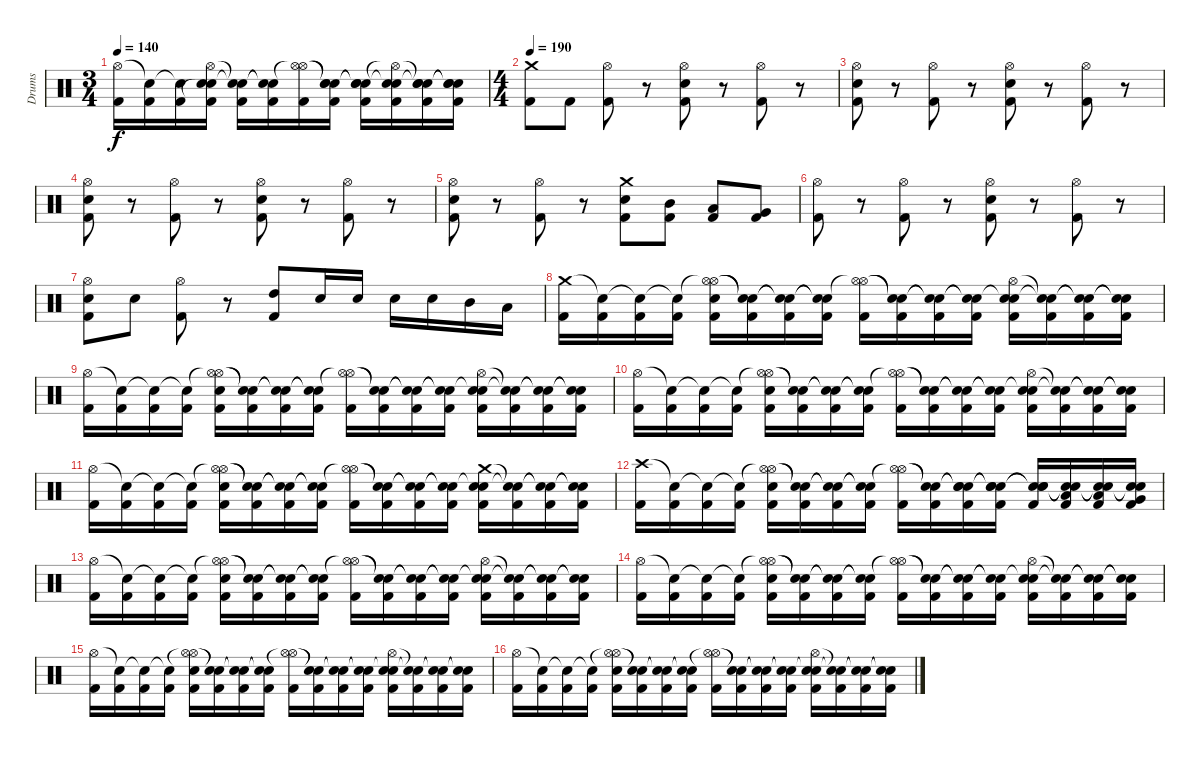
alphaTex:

\track ("Drums" "Drums") {instrument percussion}
\staff {score}
\articulation defaults
\ts (3 4)
\tempo 140
\clef neutral
\ks c
("Hi-Hat (open)" "Kick (hit) 2").16{dy f} ("Snare (hit)"{t} "Kick (hit) 2").16 ("Snare (hit)"{t} "Kick (hit) 2").16 ("Hi-Hat (open)" "Snare (hit)"{t} "Electric Snare (hit)" "Kick (hit) 2").16 ("Snare (hit)"{t} "Snare (hit)"{t} "Kick (hit) 2").16 ("Snare (hit)"{t} "Snare (hit)"{t} "Kick (hit) 2").16 ("Hi-Hat (open)"{t} "Hi-Hat (open)" "Kick (hit) 2").16 ("Snare (hit)"{t} "Snare (hit)"{t} "Electric Snare (hit)" "Kick (hit) 2").16 ("Snare (hit)"{t} "Snare (hit)"{t} "Electric Snare (hit)" "Kick (hit) 2").16 ("Hi-Hat (open)"{t} "Snare (hit)"{t} "Electric Snare (hit)" "Kick (hit) 2").16 ("Snare (hit)"{t} "Snare (hit)"{t} "Electric Snare (hit)" "Kick (hit) 2").16 ("Snare (hit)"{t} "Snare (hit)"{t} "Electric Snare (hit)" "Kick (hit) 2").16 |
\ts (4 4)
\tempo 190
("Crash medium (hit)" "Kick (hit) 2").8 "Kick (hit) 2".8 ("Hi-Hat (open)" "Kick (hit) 2").8 r.8 ("Hi-Hat (open)" "Electric Snare (hit)" "Kick (hit) 2").8 r.8 ("Hi-Hat (open)" "Kick (hit) 2").8 r.8 |
("Hi-Hat (open)" "Electric Snare (hit)" "Kick (hit) 2").8 r.8 ("Hi-Hat (open)" "Kick (hit) 2").8 r.8 ("Hi-Hat (open)" "Electric Snare (hit)" "Kick (hit) 2").8 r.8 ("Hi-Hat (open)" "Kick (hit) 2").8 r.8 |
("Hi-Hat (open)" "Electric Snare (hit)" "Kick (hit) 2").8 r.8 ("Hi-Hat (open)" "Kick (hit) 2").8 r.8 ("Hi-Hat (open)" "Electric Snare (hit)" "Kick (hit) 2").8 r.8 ("Hi-Hat (open)" "Kick (hit) 2").8 r.8 |
("Hi-Hat (open)" "Electric Snare (hit)" "Kick (hit) 2").8 r.8 ("Hi-Hat (open)" "Kick (hit) 2").8 r.8 ("Crash medium (hit)" "Electric Snare (hit)" "Kick (hit) 2").8 ("Mid Tom (hit)" "Kick (hit) 2").8 ("Low Tom (hit)" "Kick (hit) 2").8 ("Very Low Tom (hit)" "Kick (hit) 2").8 |
("Hi-Hat (open)" "Kick (hit) 2").8 r.8 ("Hi-Hat (open)" "Kick (hit) 2").8 r.8 ("Hi-Hat (open)" "Electric Snare (hit)" "Kick (hit) 2").8 r.8 ("Hi-Hat (open)" "Kick (hit) 2").8 r.8 |
("Hi-Hat (open)" "Electric Snare (hit)" "Kick (hit) 2").8 "Electric Snare (hit)".8 ("Hi-Hat (open)" "Kick (hit) 2").8 r.8 ("High Tom (hit)" "Kick (hit) 2").8 "Electric Snare (hit)".16 "Electric Snare (hit)".16 "Electric Snare (hit)".16 "Electric Snare (hit)".16 "Mid Tom (hit)".16 "Low Tom (hit)".16 |
("Crash medium (hit)" "Kick (hit) 2").16 ("Snare (hit)"{t} "Kick (hit) 2").16 ("Snare (hit)"{t} "Kick (hit) 2").16 ("Snare (hit)"{t} "Kick (hit) 2").16 ("Hi-Hat (open)"{t} "Hi-Hat (open)" "Electric Snare (hit)" "Kick (hit) 2").16 ("Snare (hit)"{t} "Snare (hit)"{t} "Kick (hit) 2").16 ("Snare (hit)"{t} "Snare (hit)"{t} "Kick (hit) 2").16 ("Snare (hit)"{t} "Snare (hit)"{t} "Kick (hit) 2").16 ("Hi-Hat (open)" "Hi-Hat (open)"{t} "Kick (hit) 2").16 ("Snare (hit)"{t} "Snare (hit)"{t} "Kick (hit) 2").16 ("Snare (hit)"{t} "Snare (hit)"{t} "Kick (hit) 2").16 ("Snare (hit)"{t} "Snare (hit)"{t} "Kick (hit) 2").16 ("Snare (hit)"{t} "Hi-Hat (open)" "Electric Snare (hit)" "Kick (hit) 2").16 ("Snare (hit)"{t} "Snare (hit)"{t} "Kick (hit) 2").16 ("Snare (hit)"{t} "Snare (hit)"{t} "Kick (hit) 2").16 ("Snare (hit)"{t} "Snare (hit)"{t} "Kick (hit) 2").16 |
("Hi-Hat (open)" "Kick (hit) 2").16 ("Snare (hit)"{t} "Kick (hit) 2").16 ("Snare (hit)"{t} "Kick (hit) 2").16 ("Snare (hit)"{t} "Kick (hit) 2").16 ("Hi-Hat (open)"{t} "Hi-Hat (open)" "Electric Snare (hit)" "Kick (hit) 2").16 ("Snare (hit)"{t} "Snare (hit)"{t} "Kick (hit) 2").16 ("Snare (hit)"{t} "Snare (hit)"{t} "Kick (hit) 2").16 ("Snare (hit)"{t} "Snare (hit)"{t} "Kick (hit) 2").16 ("Hi-Hat (open)" "Hi-Hat (open)"{t} "Kick (hit) 2").16 ("Snare (hit)"{t} "Snare (hit)"{t} "Kick (hit) 2").16 ("Snare (hit)"{t} "Snare (hit)"{t} "Kick (hit) 2").16 ("Snare (hit)"{t} "Snare (hit)"{t} "Kick (hit) 2").16 ("Snare (hit)"{t} "Hi-Hat (open)" "Electric Snare (hit)" "Kick (hit) 2").16 ("Snare (hit)"{t} "Snare (hit)"{t} "Kick (hit) 2").16 ("Snare (hit)"{t} "Snare (hit)"{t} "Kick (hit) 2").16 ("Snare (hit)"{t} "Snare (hit)"{t} "Kick (hit) 2").16 |
("Hi-Hat (open)" "Kick (hit) 2").16 ("Snare (hit)"{t} "Kick (hit) 2").16 ("Snare (hit)"{t} "Kick (hit) 2").16 ("Snare (hit)"{t} "Kick (hit) 2").16 ("Hi-Hat (open)"{t} "Hi-Hat (open)" "Electric Snare (hit)" "Kick (hit) 2").16 ("Snare (hit)"{t} "Snare (hit)"{t} "Kick (hit) 2").16 ("Snare (hit)"{t} "Snare (hit)"{t} "Kick (hit) 2").16 ("Snare (hit)"{t} "Snare (hit)"{t} "Kick (hit) 2").16 ("Hi-Hat (open)" "Hi-Hat (open)"{t} "Kick (hit) 2").16 ("Snare (hit)"{t} "Snare (hit)"{t} "Kick (hit) 2").16 ("Snare (hit)"{t} "Snare (hit)"{t} "Kick (hit) 2").16 ("Snare (hit)"{t} "Snare (hit)"{t} "Kick (hit) 2").16 ("Snare (hit)"{t} "Hi-Hat (open)" "Electric Snare (hit)" "Kick (hit) 2").16 ("Snare (hit)"{t} "Snare (hit)"{t} "Kick (hit) 2").16 ("Snare (hit)"{t} "Snare (hit)"{t} "Kick (hit) 2").16 ("Snare (hit)"{t} "Snare (hit)"{t} "Kick (hit) 2").16 |
("Hi-Hat (open)" "Kick (hit) 2").16 ("Snare (hit)"{t} "Kick (hit) 2").16 ("Snare (hit)"{t} "Kick (hit) 2").16 ("Snare (hit)"{t} "Kick (hit) 2").16 ("Hi-Hat (open)"{t} "Hi-Hat (open)" "Electric Snare (hit)" "Kick (hit) 2").16 ("Snare (hit)"{t} "Snare (hit)"{t} "Kick (hit) 2").16 ("Snare (hit)"{t} "Snare (hit)"{t} "Kick (hit) 2").16 ("Snare (hit)"{t} "Snare (hit)"{t} "Kick (hit) 2").16 ("Hi-Hat (open)" "Hi-Hat (open)"{t} "Kick (hit) 2").16 ("Snare (hit)"{t} "Snare (hit)"{t} "Kick (hit) 2").16 ("Snare (hit)"{t} "Snare (hit)"{t} "Kick (hit) 2").16 ("Snare (hit)"{t} "Snare (hit)"{t} "Kick (hit) 2").16 ("Crash medium (hit)" "Snare (hit)"{t} "Electric Snare (hit)" "Kick (hit) 2").16 ("Snare (hit)"{t} "Snare (hit)"{t} "Kick (hit) 2").16 ("Snare (hit)"{t} "Snare (hit)"{t} "Kick (hit) 2").16 ("Snare (hit)"{t} "Snare (hit)"{t} "Kick (hit) 2").16 |
("Crash high (hit)" "Kick (hit) 2").16 ("Snare (hit)"{t} "Kick (hit) 2").16 ("Snare (hit)"{t} "Kick (hit) 2").16 ("Snare (hit)"{t} "Kick (hit) 2").16 ("Hi-Hat (open)"{t} "Hi-Hat (open)" "Electric Snare (hit)" "Kick (hit) 2").16 ("Snare (hit)"{t} "Snare (hit)"{t} "Kick (hit) 2").16 ("Snare (hit)"{t} "Snare (hit)"{t} "Kick (hit) 2").16 ("Snare (hit)"{t} "Snare (hit)"{t} "Kick (hit) 2").16 ("Hi-Hat (open)" "Hi-Hat (open)"{t} "Kick (hit) 2").16 ("Snare (hit)"{t} "Snare (hit)"{t} "Kick (hit) 2").16 ("Snare (hit)"{t} "Snare (hit)"{t} "Electric Snare (hit)" "Kick (hit) 2").16 ("Snare (hit)"{t} "Snare (hit)"{t} "Electric Snare (hit)" "Kick (hit) 2").16 ("Snare (hit)"{t} "Snare (hit)"{t} "Electric Snare (hit)" "Kick (hit) 2").16 ("Snare (hit)"{t} "Snare (hit)"{t} "Low Tom (hit)" "Kick (hit) 2").16 ("Snare (hit)"{t} "Snare (hit)"{t} "Low Tom (hit)" "Kick (hit) 2").16 ("Snare (hit)"{t} "Snare (hit)"{t} "Very Low Tom (hit)" "Kick (hit) 2").16 |
("Hi-Hat (open)" "Kick (hit) 2").16 ("Snare (hit)"{t} "Kick (hit) 2").16 ("Snare (hit)"{t} "Kick (hit) 2").16 ("Snare (hit)"{t} "Kick (hit) 2").16 ("Hi-Hat (open)"{t} "Hi-Hat (open)" "Electric Snare (hit)" "Kick (hit) 2").16 ("Snare (hit)"{t} "Snare (hit)"{t} "Kick (hit) 2").16 ("Snare (hit)"{t} "Snare (hit)"{t} "Kick (hit) 2").16 ("Snare (hit)"{t} "Snare (hit)"{t} "Kick (hit) 2").16 ("Hi-Hat (open)" "Hi-Hat (open)"{t} "Kick (hit) 2").16 ("Snare (hit)"{t} "Snare (hit)"{t} "Kick (hit) 2").16 ("Snare (hit)"{t} "Snare (hit)"{t} "Kick (hit) 2").16 ("Snare (hit)"{t} "Snare (hit)"{t} "Kick (hit) 2").16 ("Snare (hit)"{t} "Hi-Hat (open)" "Electric Snare (hit)" "Kick (hit) 2").16 ("Snare (hit)"{t} "Snare (hit)"{t} "Kick (hit) 2").16 ("Snare (hit)"{t} "Snare (hit)"{t} "Kick (hit) 2").16 ("Snare (hit)"{t} "Snare (hit)"{t} "Kick (hit) 2").16 |
("Hi-Hat (open)" "Kick (hit) 2").16 ("Snare (hit)"{t} "Kick (hit) 2").16 ("Snare (hit)"{t} "Kick (hit) 2").16 ("Snare (hit)"{t} "Kick (hit) 2").16 ("Hi-Hat (open)"{t} "Hi-Hat (open)" "Electric Snare (hit)" "Kick (hit) 2").16 ("Snare (hit)"{t} "Snare (hit)"{t} "Kick (hit) 2").16 ("Snare (hit)"{t} "Snare (hit)"{t} "Kick (hit) 2").16 ("Snare (hit)"{t} "Snare (hit)"{t} "Kick (hit) 2").16 ("Hi-Hat (open)" "Hi-Hat (open)"{t} "Kick (hit) 2").16 ("Snare (hit)"{t} "Snare (hit)"{t} "Kick (hit) 2").16 ("Snare (hit)"{t} "Snare (hit)"{t} "Kick (hit) 2").16 ("Snare (hit)"{t} "Snare (hit)"{t} "Kick (hit) 2").16 ("Snare (hit)"{t} "Hi-Hat (open)" "Electric Snare (hit)" "Kick (hit) 2").16 ("Snare (hit)"{t} "Snare (hit)"{t} "Kick (hit) 2").16 ("Snare (hit)"{t} "Snare (hit)"{t} "Kick (hit) 2").16 ("Snare (hit)"{t} "Snare (hit)"{t} "Kick (hit) 2").16 |
("Hi-Hat (open)" "Kick (hit) 2").16 ("Snare (hit)"{t} "Kick (hit) 2").16 ("Snare (hit)"{t} "Kick (hit) 2").16 ("Snare (hit)"{t} "Kick (hit) 2").16 ("Hi-Hat (open)"{t} "Hi-Hat (open)" "Electric Snare (hit)" "Kick (hit) 2").16 ("Snare (hit)"{t} "Snare (hit)"{t} "Kick (hit) 2").16 ("Snare (hit)"{t} "Snare (hit)"{t} "Kick (hit) 2").16 ("Snare (hit)"{t} "Snare (hit)"{t} "Kick (hit) 2").16 ("Hi-Hat (open)" "Hi-Hat (open)"{t} "Kick (hit) 2").16 ("Snare (hit)"{t} "Snare (hit)"{t} "Kick (hit) 2").16 ("Snare (hit)"{t} "Snare (hit)"{t} "Kick (hit) 2").16 ("Snare (hit)"{t} "Snare (hit)"{t} "Kick (hit) 2").16 ("Snare (hit)"{t} "Hi-Hat (open)" "Electric Snare (hit)" "Kick (hit) 2").16 ("Snare (hit)"{t} "Snare (hit)"{t} "Kick (hit) 2").16 ("Snare (hit)"{t} "Snare (hit)"{t} "Kick (hit) 2").16 ("Snare (hit)"{t} "Snare (hit)"{t} "Kick (hit) 2").16 |
("Hi-Hat (open)" "Kick (hit) 2").16 ("Snare (hit)"{t} "Kick (hit) 2").16 ("Snare (hit)"{t} "Kick (hit) 2").16 ("Snare (hit)"{t} "Kick (hit) 2").16 ("Hi-Hat (open)"{t} "Hi-Hat (open)" "Electric Snare (hit)" "Kick (hit) 2").16 ("Snare (hit)"{t} "Snare (hit)"{t} "Kick (hit) 2").16 ("Snare (hit)"{t} "Snare (hit)"{t} "Kick (hit) 2").16 ("Snare (hit)"{t} "Snare (hit)"{t} "Kick (hit) 2").16 ("Hi-Hat (open)" "Hi-Hat (open)"{t} "Kick (hit) 2").16 ("Snare (hit)"{t} "Snare (hit)"{t} "Kick (hit) 2").16 ("Snare (hit)"{t} "Snare (hit)"{t} "Kick (hit) 2").16 ("Snare (hit)"{t} "Snare (hit)"{t} "Kick (hit) 2").16 ("Snare (hit)"{t} "Hi-Hat (open)" "Electric Snare (hit)" "Kick (hit) 2").16 ("Snare (hit)"{t} "Snare (hit)"{t} "Kick (hit) 2").16 ("Snare (hit)"{t} "Snare (hit)"{t} "Kick (hit) 2").16 ("Snare (hit)"{t} "Snare (hit)"{t} "Kick (hit) 2").16
